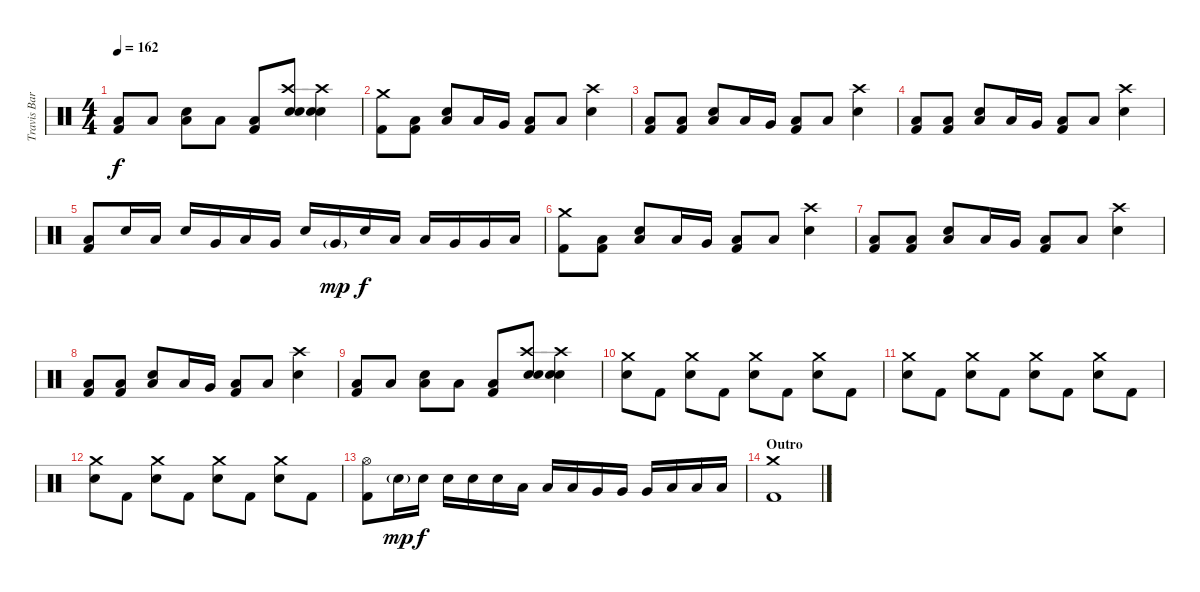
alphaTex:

\track ("Travis Barker - Drums" "Travis Bar") {instrument percussion}
\staff {score}
\articulation defaults
\ts (4 4)
\tempo 162
\clef neutral
\ks c
("Low Floor Tom (hit)" "Kick (hit) 2").8{dy f} "Low Floor Tom (hit)".8 ("Low Floor Tom (hit)" "Electric Snare (hit)").8 "Low Floor Tom (hit)".8 ("Low Floor Tom (hit)" "Kick (hit) 2").8 ("Crash high (hit)" "Hand Clap (hit)" "Electric Snare (hit)").8 ("Crash high (hit)" "Hand Clap (hit)" "Electric Snare (hit)").4 |
("Crash medium (hit)" "Kick (hit) 2").8 ("Low Floor Tom (hit)" "Kick (hit) 2").8 ("Low Floor Tom (hit)" "Electric Snare (hit)").8 "Low Tom (hit)".16 "Very Low Tom (hit)".16 ("Low Floor Tom (hit)" "Kick (hit) 2").8 "Low Floor Tom (hit)".8 ("Crash high (hit)" "Electric Snare (hit)").4 |
("Low Floor Tom (hit)" "Kick (hit) 2").8 ("Low Floor Tom (hit)" "Kick (hit) 2").8 ("Low Floor Tom (hit)" "Electric Snare (hit)").8 "Low Tom (hit)".16 "Very Low Tom (hit)".16 ("Low Floor Tom (hit)" "Kick (hit) 2").8 "Low Floor Tom (hit)".8 ("Crash high (hit)" "Electric Snare (hit)").4 |
("Low Floor Tom (hit)" "Kick (hit) 2").8 ("Low Floor Tom (hit)" "Kick (hit) 2").8 ("Low Floor Tom (hit)" "Electric Snare (hit)").8 "Low Tom (hit)".16 "Very Low Tom (hit)".16 ("Low Floor Tom (hit)" "Kick (hit) 2").8 "Low Floor Tom (hit)".8 ("Crash high (hit)" "Electric Snare (hit)").4 |
("Low Tom (hit)" "Kick (hit) 2").8 "Electric Snare (hit)".16 "Low Tom (hit)".16 "Electric Snare (hit)".16 "Very Low Tom (hit)".16 "Low Tom (hit)".16 "Very Low Tom (hit)".16 "Electric Snare (hit)".16 "Very Low Tom (hit)"{g}.16{dy mp} "Electric Snare (hit)".16{dy f} "Low Tom (hit)".16 "Low Tom (hit)".16 "Very Low Tom (hit)".16 "Very Low Tom (hit)".16 "Low Floor Tom (hit)".16 |
("Crash medium (hit)" "Kick (hit) 2").8 ("Low Floor Tom (hit)" "Kick (hit) 2").8 ("Low Floor Tom (hit)" "Electric Snare (hit)").8 "Low Tom (hit)".16 "Very Low Tom (hit)".16 ("Low Floor Tom (hit)" "Kick (hit) 2").8 "Low Floor Tom (hit)".8 ("Crash high (hit)" "Electric Snare (hit)").4 |
("Low Floor Tom (hit)" "Kick (hit) 2").8 ("Low Floor Tom (hit)" "Kick (hit) 2").8 ("Low Floor Tom (hit)" "Electric Snare (hit)").8 "Low Tom (hit)".16 "Very Low Tom (hit)".16 ("Low Floor Tom (hit)" "Kick (hit) 2").8 "Low Floor Tom (hit)".8 ("Crash high (hit)" "Electric Snare (hit)").4 |
("Low Floor Tom (hit)" "Kick (hit) 2").8 ("Low Floor Tom (hit)" "Kick (hit) 2").8 ("Low Floor Tom (hit)" "Electric Snare (hit)").8 "Low Tom (hit)".16 "Very Low Tom (hit)".16 ("Low Floor Tom (hit)" "Kick (hit) 2").8 "Low Floor Tom (hit)".8 ("Crash high (hit)" "Electric Snare (hit)").4 |
("Low Floor Tom (hit)" "Kick (hit) 2").8 "Low Floor Tom (hit)".8 ("Low Floor Tom (hit)" "Electric Snare (hit)").8 "Low Floor Tom (hit)".8 ("Low Floor Tom (hit)" "Kick (hit) 2").8 ("Crash high (hit)" "Hand Clap (hit)" "Electric Snare (hit)").8 ("Crash high (hit)" "Hand Clap (hit)" "Electric Snare (hit)").4 |
("Crash medium (hit)" "Electric Snare (hit)").8 "Kick (hit) 2".8 ("Crash medium (hit)" "Electric Snare (hit)").8 "Kick (hit) 2".8 ("Crash medium (hit)" "Electric Snare (hit)").8 "Kick (hit) 2".8 ("Crash medium (hit)" "Electric Snare (hit)").8 "Kick (hit) 2".8 |
("Crash medium (hit)" "Electric Snare (hit)").8 "Kick (hit) 2".8 ("Crash medium (hit)" "Electric Snare (hit)").8 "Kick (hit) 2".8 ("Crash medium (hit)" "Electric Snare (hit)").8 "Kick (hit) 2".8 ("Crash medium (hit)" "Electric Snare (hit)").8 "Kick (hit) 2".8 |
("Crash medium (hit)" "Electric Snare (hit)").8 "Kick (hit) 2".8 ("Crash medium (hit)" "Electric Snare (hit)").8 "Kick (hit) 2".8 ("Crash medium (hit)" "Electric Snare (hit)").8 "Kick (hit) 2".8 ("Crash medium (hit)" "Electric Snare (hit)").8 "Kick (hit) 2".8 |
("Hi-Hat (open)" "Kick (hit) 2").8 "Electric Snare (hit)"{g}.16{dy mp} "Electric Snare (hit)".16{dy f} "Electric Snare (hit)".16 "Electric Snare (hit)".16 "Electric Snare (hit)".16 "Low Tom (hit)".16 "Low Tom (hit)".16 "Low Tom (hit)".16 "Very Low Tom (hit)".16 "Very Low Tom (hit)".16 "Very Low Tom (hit)".16 "Low Floor Tom (hit)".16 "Low Floor Tom (hit)".16 "Low Floor Tom (hit)".16 |
\section ("" "Outro")
("Crash medium (hit)" "Kick (hit) 2").1
